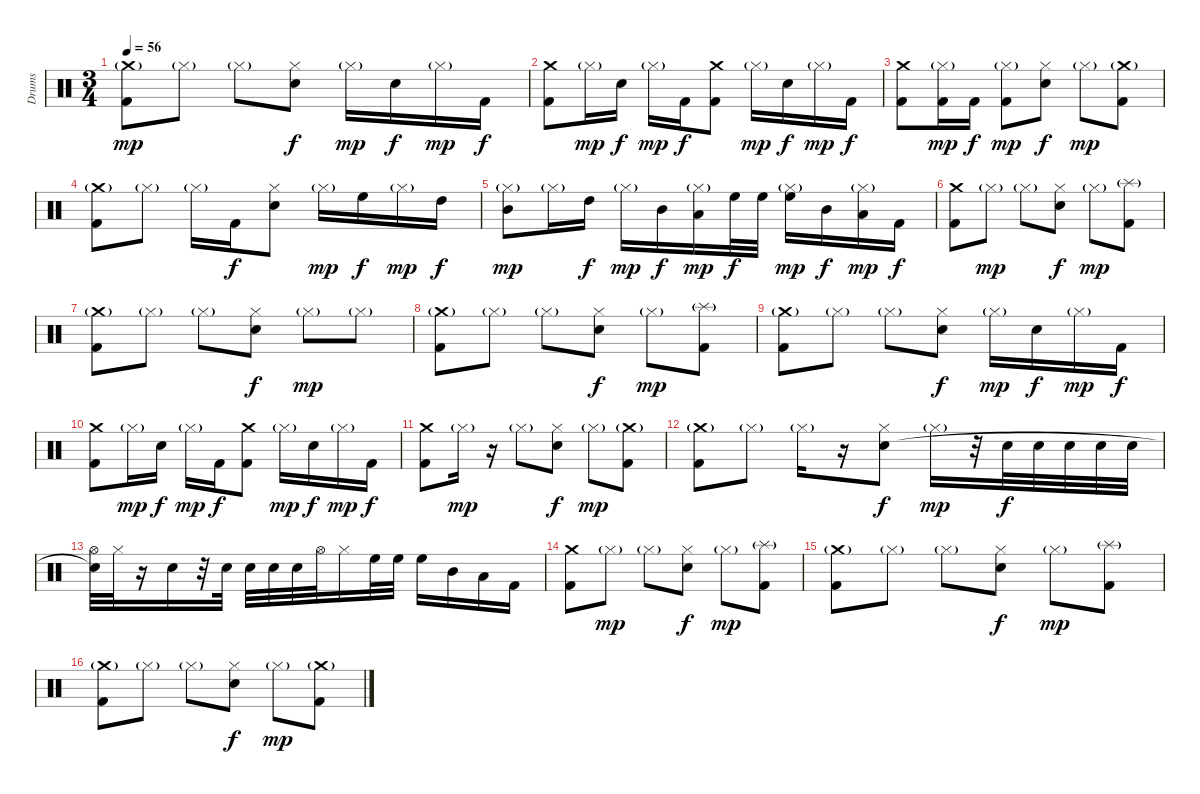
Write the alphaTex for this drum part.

\track ("Drums" "Drums") {instrument percussion}
\staff {score}
\articulation defaults
\ts (3 4)
\tempo 56
\clef neutral
\ks c
("Crash medium (hit)"{g} "Kick (hit) 2").8{dy mp} "Hi-Hat (closed)"{g}.8 "Hi-Hat (closed)"{g}.8 ("Hi-Hat (closed)" "Electric Snare (hit)").8{dy f} "Hi-Hat (closed)"{g}.16{dy mp} "Electric Snare (hit)".16{dy f} "Hi-Hat (closed)"{g}.16{dy mp} "Kick (hit) 2".16{dy f} |
("Crash medium (hit)" "Kick (hit) 2").8 "Hi-Hat (closed)"{g}.16{dy mp} "Electric Snare (hit)".16{dy f} "Hi-Hat (closed)"{g}.16{dy mp} "Kick (hit) 2".16{dy f} ("Crash medium (hit)" "Kick (hit) 2").8 "Hi-Hat (closed)"{g}.16{dy mp} "Electric Snare (hit)".16{dy f} "Hi-Hat (closed)"{g}.16{dy mp} "Kick (hit) 2".16{dy f} |
("Crash medium (hit)" "Kick (hit) 2").8 ("Hi-Hat (closed)"{g} "Kick (hit) 2").16{dy mp} "Kick (hit) 2".16{dy f} ("Hi-Hat (closed)"{g} "Kick (hit) 2").8{dy mp} ("Hi-Hat (closed)" "Electric Snare (hit)").8{dy f} "Hi-Hat (closed)"{g}.8{dy mp} ("Crash medium (hit)"{g} "Kick (hit) 2").8 |
("Crash medium (hit)"{g} "Kick (hit) 2").8 "Hi-Hat (closed)"{g}.8 "Hi-Hat (closed)"{g}.16 "Kick (hit) 2".16{dy f} ("Hi-Hat (closed)" "Electric Snare (hit)").8 "Hi-Hat (closed)"{g}.16{dy mp} "High Floor Tom (hit)".16{dy f} "Hi-Hat (closed)"{g}.16{dy mp} "High Tom (hit)".16{dy f} |
("Hi-Hat (closed)"{g} "Mid Tom (hit)").8{dy mp} "Hi-Hat (closed)"{g}.16 "High Tom (hit)".16{dy f} "Hi-Hat (closed)"{g}.16{dy mp} "Mid Tom (hit)".16{dy f} ("Hi-Hat (closed)"{g} "Low Tom (hit)").16{dy mp} "High Floor Tom (hit)".32{dy f} "High Floor Tom (hit)".32 ("Hi-Hat (closed)"{g} "High Floor Tom (hit)").16{dy mp} "Mid Tom (hit)".16{dy f} ("Hi-Hat (closed)"{g} "Low Tom (hit)").16{dy mp} "Kick (hit) 2".16{dy f} |
("Crash medium (hit)" "Kick (hit) 2").8 "Hi-Hat (closed)"{g}.8{dy mp} "Hi-Hat (closed)"{g}.8 ("Hi-Hat (closed)" "Electric Snare (hit)").8{dy f} "Hi-Hat (closed)"{g}.8{dy mp} ("Splash (hit)"{g} "Kick (hit) 2").8 |
("Crash medium (hit)"{g} "Kick (hit) 2").8 "Hi-Hat (closed)"{g}.8 "Hi-Hat (closed)"{g}.8 ("Hi-Hat (closed)" "Electric Snare (hit)").8{dy f} "Hi-Hat (closed)"{g}.8{dy mp} "Hi-Hat (closed)"{g}.8 |
("Crash medium (hit)"{g} "Kick (hit) 2").8 "Hi-Hat (closed)"{g}.8 "Hi-Hat (closed)"{g}.8 ("Hi-Hat (closed)" "Electric Snare (hit)").8{dy f} "Hi-Hat (closed)"{g}.8{dy mp} ("Splash (hit)"{g} "Kick (hit) 2").8 |
("Crash medium (hit)"{g} "Kick (hit) 2").8 "Hi-Hat (closed)"{g}.8 "Hi-Hat (closed)"{g}.8 ("Hi-Hat (closed)" "Electric Snare (hit)").8{dy f} "Hi-Hat (closed)"{g}.16{dy mp} "Electric Snare (hit)".16{dy f} "Hi-Hat (closed)"{g}.16{dy mp} "Kick (hit) 2".16{dy f} |
("Crash medium (hit)" "Kick (hit) 2").8 "Hi-Hat (closed)"{g}.16{dy mp} "Electric Snare (hit)".16{dy f} "Hi-Hat (closed)"{g}.16{dy mp} "Kick (hit) 2".16{dy f} ("Crash medium (hit)" "Kick (hit) 2").8 "Hi-Hat (closed)"{g}.16{dy mp} "Electric Snare (hit)".16{dy f} "Hi-Hat (closed)"{g}.16{dy mp} "Kick (hit) 2".16{dy f} |
("Crash medium (hit)" "Kick (hit) 2").8 "Hi-Hat (closed)"{g}.16{dy mp} r.16 "Hi-Hat (closed)"{g}.8 ("Hi-Hat (closed)" "Electric Snare (hit)").8{dy f} "Hi-Hat (closed)"{g}.8{dy mp} ("Crash medium (hit)"{g} "Kick (hit) 2").8 |
("Crash medium (hit)"{g} "Kick (hit) 2").8 "Hi-Hat (closed)"{g}.8 "Hi-Hat (closed)"{g}.16 r.16 ("Hi-Hat (closed)" "Electric Snare (hit)").8{dy f} "Hi-Hat (closed)"{g}.16{dy mp} r.32 "Electric Snare (hit)".32{dy f} "Electric Snare (hit)".32 "Electric Snare (hit)".32 "Electric Snare (hit)".32 "Electric Snare (hit)".32 |
("Hi-Hat (open)" "Electric Snare (hit)"{t}).32 "Hi-Hat (closed)".32 r.16 "Electric Snare (hit)".16 r.32 "Electric Snare (hit)".32 "Electric Snare (hit)".32 "Electric Snare (hit)".32 "Electric Snare (hit)".32 "Hi-Hat (open)".32 "Hi-Hat (closed)".16 "High Floor Tom (hit)".32 "High Floor Tom (hit)".32 "High Floor Tom (hit)".16 "Mid Tom (hit)".16 "Low Tom (hit)".16 "Kick (hit) 2".16 |
("Crash medium (hit)" "Kick (hit) 2").8 "Hi-Hat (closed)"{g}.8{dy mp} "Hi-Hat (closed)"{g}.8 ("Hi-Hat (closed)" "Electric Snare (hit)").8{dy f} "Hi-Hat (closed)"{g}.8{dy mp} ("Splash (hit)"{g} "Kick (hit) 2").8 |
("Crash medium (hit)"{g} "Kick (hit) 2").8 "Hi-Hat (closed)"{g}.8 "Hi-Hat (closed)"{g}.8 ("Hi-Hat (closed)" "Electric Snare (hit)").8{dy f} "Hi-Hat (closed)"{g}.8{dy mp} ("Splash (hit)"{g} "Kick (hit) 2").8 |
("Crash medium (hit)"{g} "Kick (hit) 2").8 "Hi-Hat (closed)"{g}.8 "Hi-Hat (closed)"{g}.8 ("Hi-Hat (closed)" "Electric Snare (hit)").8{dy f} "Hi-Hat (closed)"{g}.8{dy mp} ("Crash medium (hit)"{g} "Kick (hit) 2").8
